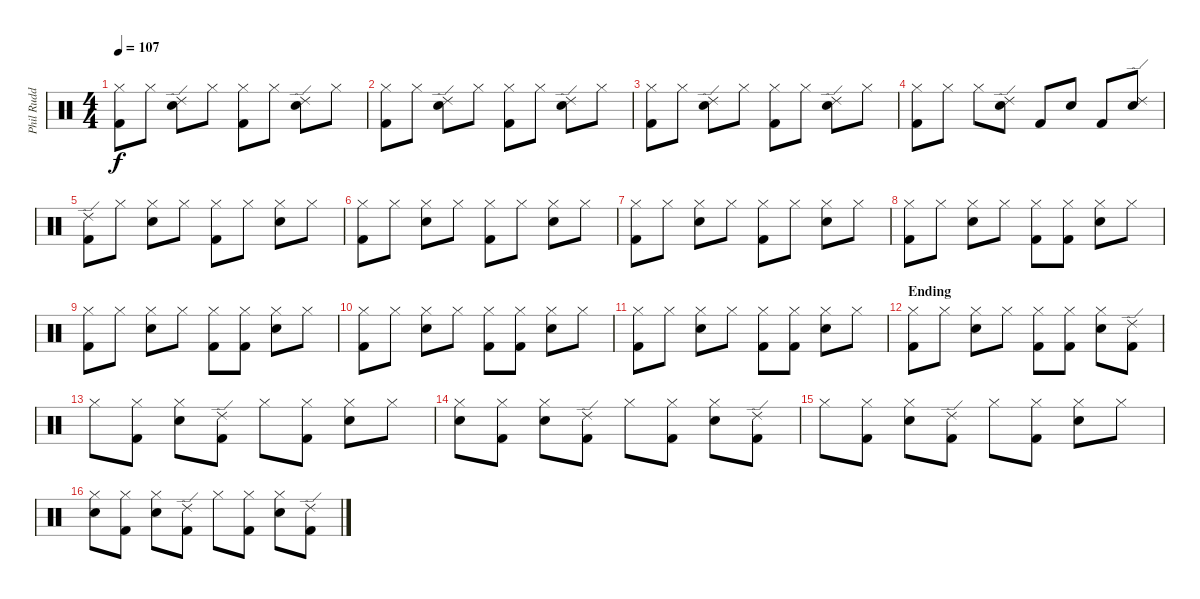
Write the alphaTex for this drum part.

\track ("Phil Rudd" "Phil Rudd") {instrument percussion}
\staff {score}
\articulation defaults
\ts (4 4)
\tempo 107
\clef neutral
\ks c
("Hi-Hat (closed)" "Kick (hit) 2").8{dy f} "Hi-Hat (closed)".8 ("Snare (hit) 2" "Ride (edge) 2").8 "Hi-Hat (closed)".8 ("Hi-Hat (closed)" "Kick (hit) 2").8 "Hi-Hat (closed)".8 ("Snare (hit) 2" "Ride (edge) 2").8 "Hi-Hat (closed)".8 |
("Hi-Hat (closed)" "Kick (hit) 2").8 "Hi-Hat (closed)".8 ("Snare (hit) 2" "Ride (edge) 2").8 "Hi-Hat (closed)".8 ("Hi-Hat (closed)" "Kick (hit) 2").8 "Hi-Hat (closed)".8 ("Snare (hit) 2" "Ride (edge) 2").8 "Hi-Hat (closed)".8 |
("Hi-Hat (closed)" "Kick (hit) 2").8 "Hi-Hat (closed)".8 ("Snare (hit) 2" "Ride (edge) 2").8 "Hi-Hat (closed)".8 ("Hi-Hat (closed)" "Kick (hit) 2").8 "Hi-Hat (closed)".8 ("Snare (hit) 2" "Ride (edge) 2").8 "Hi-Hat (closed)".8 |
("Hi-Hat (closed)" "Kick (hit) 2").8 "Hi-Hat (closed)".8 "Hi-Hat (closed)".8 ("Snare (hit) 2" "Ride (edge) 2").8 "Kick (hit) 2".8 "Snare (hit) 2".8 "Kick (hit) 2".8 ("Snare (hit) 2" "Ride (edge) 2").8 |
("Kick (hit) 2" "Ride (edge) 2").8 "Hi-Hat (closed)".8 ("Hi-Hat (closed)" "Snare (hit) 2").8 "Hi-Hat (closed)".8 ("Hi-Hat (closed)" "Kick (hit) 2").8 "Hi-Hat (closed)".8 ("Hi-Hat (closed)" "Snare (hit) 2").8 "Hi-Hat (closed)".8 |
("Hi-Hat (closed)" "Kick (hit) 2").8 "Hi-Hat (closed)".8 ("Hi-Hat (closed)" "Snare (hit) 2").8 "Hi-Hat (closed)".8 ("Hi-Hat (closed)" "Kick (hit) 2").8 "Hi-Hat (closed)".8 ("Hi-Hat (closed)" "Snare (hit) 2").8 "Hi-Hat (closed)".8 |
("Hi-Hat (closed)" "Kick (hit) 2").8 "Hi-Hat (closed)".8 ("Hi-Hat (closed)" "Snare (hit) 2").8 "Hi-Hat (closed)".8 ("Hi-Hat (closed)" "Kick (hit) 2").8 "Hi-Hat (closed)".8 ("Hi-Hat (closed)" "Snare (hit) 2").8 "Hi-Hat (closed)".8 |
("Hi-Hat (closed)" "Kick (hit) 2").8 "Hi-Hat (closed)".8 ("Hi-Hat (closed)" "Snare (hit) 2").8 "Hi-Hat (closed)".8 ("Hi-Hat (closed)" "Kick (hit) 2").8 ("Hi-Hat (closed)" "Kick (hit) 2").8 ("Hi-Hat (closed)" "Snare (hit) 2").8 "Hi-Hat (closed)".8 |
("Hi-Hat (closed)" "Kick (hit) 2").8 "Hi-Hat (closed)".8 ("Hi-Hat (closed)" "Snare (hit) 2").8 "Hi-Hat (closed)".8 ("Hi-Hat (closed)" "Kick (hit) 2").8 ("Hi-Hat (closed)" "Kick (hit) 2").8 ("Hi-Hat (closed)" "Snare (hit) 2").8 "Hi-Hat (closed)".8 |
("Hi-Hat (closed)" "Kick (hit) 2").8 "Hi-Hat (closed)".8 ("Hi-Hat (closed)" "Snare (hit) 2").8 "Hi-Hat (closed)".8 ("Hi-Hat (closed)" "Kick (hit) 2").8 ("Hi-Hat (closed)" "Kick (hit) 2").8 ("Hi-Hat (closed)" "Snare (hit) 2").8 "Hi-Hat (closed)".8 |
("Hi-Hat (closed)" "Kick (hit) 2").8 "Hi-Hat (closed)".8 ("Hi-Hat (closed)" "Snare (hit) 2").8 "Hi-Hat (closed)".8 ("Hi-Hat (closed)" "Kick (hit) 2").8 ("Hi-Hat (closed)" "Kick (hit) 2").8 ("Hi-Hat (closed)" "Snare (hit) 2").8 "Hi-Hat (closed)".8 |
\section ("" "Ending")
("Hi-Hat (closed)" "Kick (hit) 2").8 "Hi-Hat (closed)".8 ("Hi-Hat (closed)" "Snare (hit) 2").8 "Hi-Hat (closed)".8 ("Hi-Hat (closed)" "Kick (hit) 2").8 ("Hi-Hat (closed)" "Kick (hit) 2").8 ("Hi-Hat (closed)" "Snare (hit) 2").8 ("Kick (hit) 2" "Ride (edge) 2").8 |
"Hi-Hat (closed)".8 ("Hi-Hat (closed)" "Kick (hit) 2").8 ("Hi-Hat (closed)" "Snare (hit) 2").8 ("Kick (hit) 2" "Ride (edge) 2").8 "Hi-Hat (closed)".8 ("Hi-Hat (closed)" "Kick (hit) 2").8 ("Hi-Hat (closed)" "Snare (hit) 2").8 "Hi-Hat (closed)".8 |
("Hi-Hat (closed)" "Snare (hit) 2").8 ("Hi-Hat (closed)" "Kick (hit) 2").8 ("Hi-Hat (closed)" "Snare (hit) 2").8 ("Kick (hit) 2" "Ride (edge) 2").8 "Hi-Hat (closed)".8 ("Hi-Hat (closed)" "Kick (hit) 2").8 ("Hi-Hat (closed)" "Snare (hit) 2").8 ("Kick (hit) 2" "Ride (edge) 2").8 |
"Hi-Hat (closed)".8 ("Hi-Hat (closed)" "Kick (hit) 2").8 ("Hi-Hat (closed)" "Snare (hit) 2").8 ("Kick (hit) 2" "Ride (edge) 2").8 "Hi-Hat (closed)".8 ("Hi-Hat (closed)" "Kick (hit) 2").8 ("Hi-Hat (closed)" "Snare (hit) 2").8 "Hi-Hat (closed)".8 |
("Hi-Hat (closed)" "Snare (hit) 2").8 ("Hi-Hat (closed)" "Kick (hit) 2").8 ("Hi-Hat (closed)" "Snare (hit) 2").8 ("Kick (hit) 2" "Ride (edge) 2").8 "Hi-Hat (closed)".8 ("Hi-Hat (closed)" "Kick (hit) 2").8 ("Hi-Hat (closed)" "Snare (hit) 2").8 ("Kick (hit) 2" "Ride (edge) 2").8
